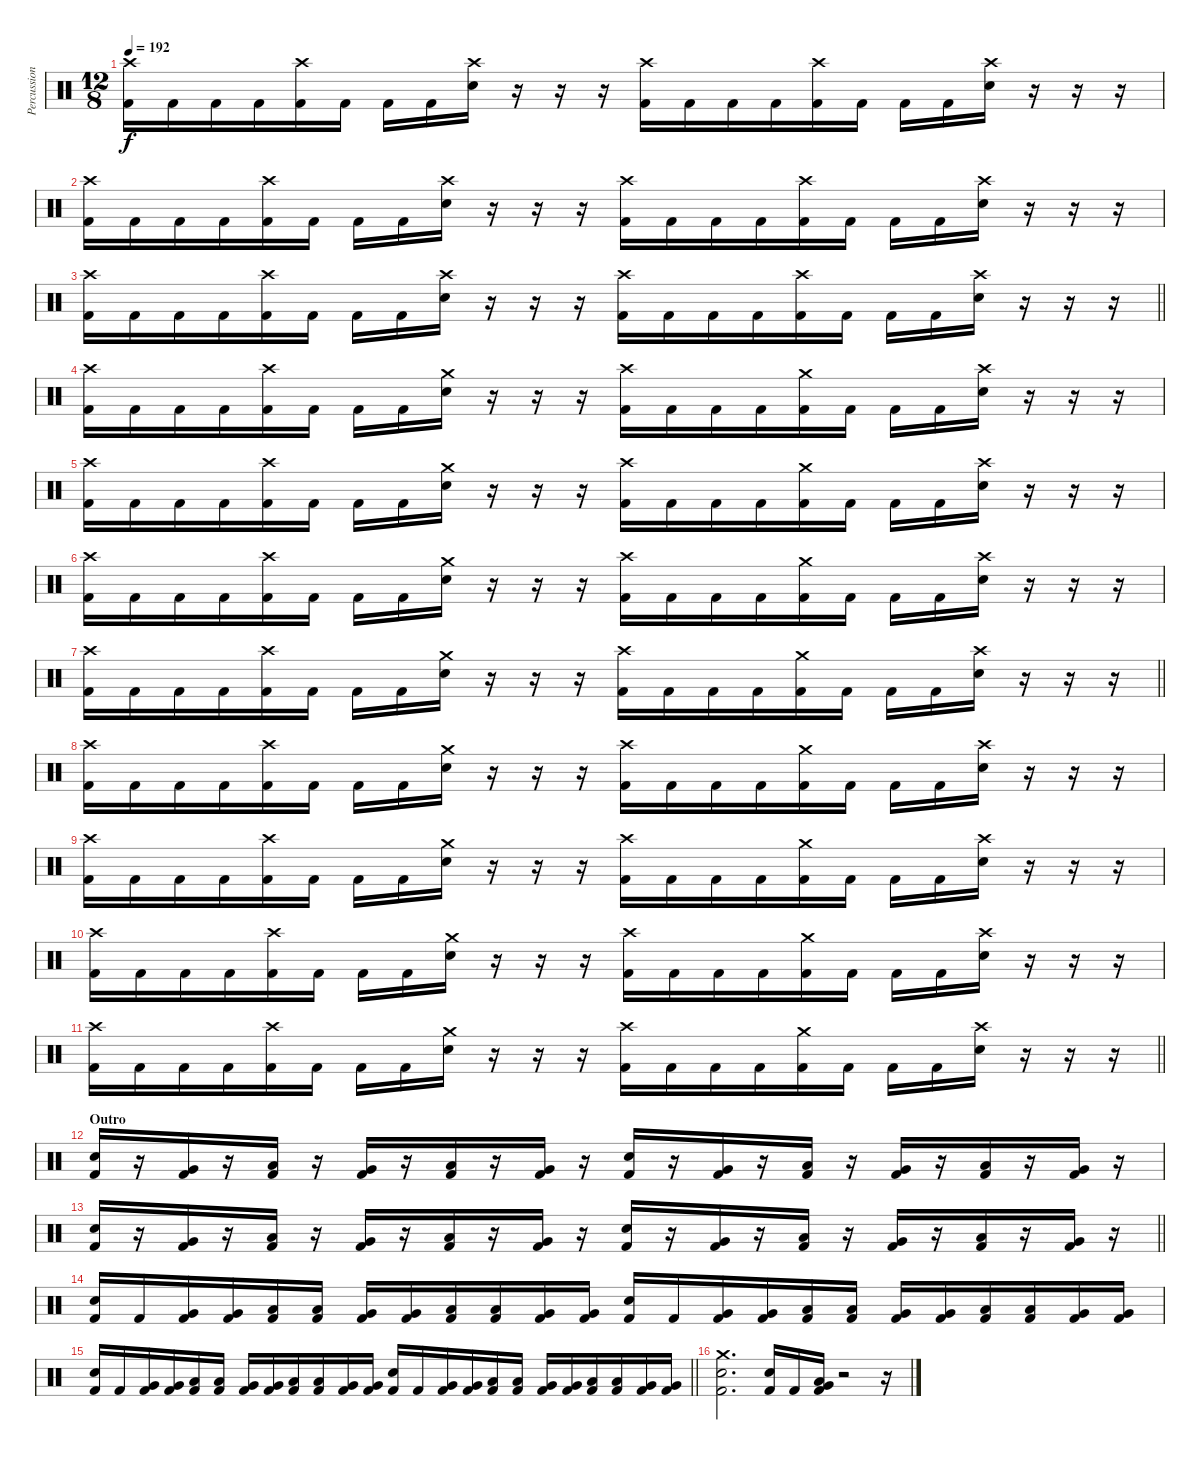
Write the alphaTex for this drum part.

\track ("Percussion" "Percussion") {instrument percussion}
\staff {score}
\articulation defaults
\ts (12 8)
\tempo 192
\clef neutral
\ks c
("Crash high (hit)" "Kick (hit) 2").16{dy f} "Kick (hit) 2".16 "Kick (hit) 2".16 "Kick (hit) 2".16 ("Crash high (hit)" "Kick (hit) 2").16 "Kick (hit) 2".16 "Kick (hit) 2".16 "Kick (hit) 2".16 ("Crash high (hit)" "Electric Snare (hit)").16 r.16 r.16 r.16 ("Crash high (hit)" "Kick (hit) 2").16 "Kick (hit) 2".16 "Kick (hit) 2".16 "Kick (hit) 2".16 ("Crash high (hit)" "Kick (hit) 2").16 "Kick (hit) 2".16 "Kick (hit) 2".16 "Kick (hit) 2".16 ("Crash high (hit)" "Electric Snare (hit)").16 r.16 r.16 r.16 |
("Crash high (hit)" "Kick (hit) 2").16 "Kick (hit) 2".16 "Kick (hit) 2".16 "Kick (hit) 2".16 ("Crash high (hit)" "Kick (hit) 2").16 "Kick (hit) 2".16 "Kick (hit) 2".16 "Kick (hit) 2".16 ("Crash high (hit)" "Electric Snare (hit)").16 r.16 r.16 r.16 ("Crash high (hit)" "Kick (hit) 2").16 "Kick (hit) 2".16 "Kick (hit) 2".16 "Kick (hit) 2".16 ("Crash high (hit)" "Kick (hit) 2").16 "Kick (hit) 2".16 "Kick (hit) 2".16 "Kick (hit) 2".16 ("Crash high (hit)" "Electric Snare (hit)").16 r.16 r.16 r.16 |
\barLineRight lightlight
("Crash high (hit)" "Kick (hit) 2").16 "Kick (hit) 2".16 "Kick (hit) 2".16 "Kick (hit) 2".16 ("Crash high (hit)" "Kick (hit) 2").16 "Kick (hit) 2".16 "Kick (hit) 2".16 "Kick (hit) 2".16 ("Crash high (hit)" "Electric Snare (hit)").16 r.16 r.16 r.16 ("Crash high (hit)" "Kick (hit) 2").16 "Kick (hit) 2".16 "Kick (hit) 2".16 "Kick (hit) 2".16 ("Crash high (hit)" "Kick (hit) 2").16 "Kick (hit) 2".16 "Kick (hit) 2".16 "Kick (hit) 2".16 ("Crash high (hit)" "Electric Snare (hit)").16 r.16 r.16 r.16 |
("Crash high (hit)" "Kick (hit) 2").16 "Kick (hit) 2".16 "Kick (hit) 2".16 "Kick (hit) 2".16 ("Crash high (hit)" "Kick (hit) 2").16 "Kick (hit) 2".16 "Kick (hit) 2".16 "Kick (hit) 2".16 ("Crash medium (hit)" "Electric Snare (hit)").16 r.16 r.16 r.16 ("Crash high (hit)" "Kick (hit) 2").16 "Kick (hit) 2".16 "Kick (hit) 2".16 "Kick (hit) 2".16 ("Crash medium (hit)" "Kick (hit) 2").16 "Kick (hit) 2".16 "Kick (hit) 2".16 "Kick (hit) 2".16 ("Crash high (hit)" "Electric Snare (hit)").16 r.16 r.16 r.16 |
("Crash high (hit)" "Kick (hit) 2").16 "Kick (hit) 2".16 "Kick (hit) 2".16 "Kick (hit) 2".16 ("Crash high (hit)" "Kick (hit) 2").16 "Kick (hit) 2".16 "Kick (hit) 2".16 "Kick (hit) 2".16 ("Crash medium (hit)" "Electric Snare (hit)").16 r.16 r.16 r.16 ("Crash high (hit)" "Kick (hit) 2").16 "Kick (hit) 2".16 "Kick (hit) 2".16 "Kick (hit) 2".16 ("Crash medium (hit)" "Kick (hit) 2").16 "Kick (hit) 2".16 "Kick (hit) 2".16 "Kick (hit) 2".16 ("Crash high (hit)" "Electric Snare (hit)").16 r.16 r.16 r.16 |
("Crash high (hit)" "Kick (hit) 2").16 "Kick (hit) 2".16 "Kick (hit) 2".16 "Kick (hit) 2".16 ("Crash high (hit)" "Kick (hit) 2").16 "Kick (hit) 2".16 "Kick (hit) 2".16 "Kick (hit) 2".16 ("Crash medium (hit)" "Electric Snare (hit)").16 r.16 r.16 r.16 ("Crash high (hit)" "Kick (hit) 2").16 "Kick (hit) 2".16 "Kick (hit) 2".16 "Kick (hit) 2".16 ("Crash medium (hit)" "Kick (hit) 2").16 "Kick (hit) 2".16 "Kick (hit) 2".16 "Kick (hit) 2".16 ("Crash high (hit)" "Electric Snare (hit)").16 r.16 r.16 r.16 |
\barLineRight lightlight
("Crash high (hit)" "Kick (hit) 2").16 "Kick (hit) 2".16 "Kick (hit) 2".16 "Kick (hit) 2".16 ("Crash high (hit)" "Kick (hit) 2").16 "Kick (hit) 2".16 "Kick (hit) 2".16 "Kick (hit) 2".16 ("Crash medium (hit)" "Electric Snare (hit)").16 r.16 r.16 r.16 ("Crash high (hit)" "Kick (hit) 2").16 "Kick (hit) 2".16 "Kick (hit) 2".16 "Kick (hit) 2".16 ("Crash medium (hit)" "Kick (hit) 2").16 "Kick (hit) 2".16 "Kick (hit) 2".16 "Kick (hit) 2".16 ("Crash high (hit)" "Electric Snare (hit)").16 r.16 r.16 r.16 |
("Crash high (hit)" "Kick (hit) 2").16 "Kick (hit) 2".16 "Kick (hit) 2".16 "Kick (hit) 2".16 ("Crash high (hit)" "Kick (hit) 2").16 "Kick (hit) 2".16 "Kick (hit) 2".16 "Kick (hit) 2".16 ("Crash medium (hit)" "Electric Snare (hit)").16 r.16 r.16 r.16 ("Crash high (hit)" "Kick (hit) 2").16 "Kick (hit) 2".16 "Kick (hit) 2".16 "Kick (hit) 2".16 ("Crash medium (hit)" "Kick (hit) 2").16 "Kick (hit) 2".16 "Kick (hit) 2".16 "Kick (hit) 2".16 ("Crash high (hit)" "Electric Snare (hit)").16 r.16 r.16 r.16 |
("Crash high (hit)" "Kick (hit) 2").16 "Kick (hit) 2".16 "Kick (hit) 2".16 "Kick (hit) 2".16 ("Crash high (hit)" "Kick (hit) 2").16 "Kick (hit) 2".16 "Kick (hit) 2".16 "Kick (hit) 2".16 ("Crash medium (hit)" "Electric Snare (hit)").16 r.16 r.16 r.16 ("Crash high (hit)" "Kick (hit) 2").16 "Kick (hit) 2".16 "Kick (hit) 2".16 "Kick (hit) 2".16 ("Crash medium (hit)" "Kick (hit) 2").16 "Kick (hit) 2".16 "Kick (hit) 2".16 "Kick (hit) 2".16 ("Crash high (hit)" "Electric Snare (hit)").16 r.16 r.16 r.16 |
("Crash high (hit)" "Kick (hit) 2").16 "Kick (hit) 2".16 "Kick (hit) 2".16 "Kick (hit) 2".16 ("Crash high (hit)" "Kick (hit) 2").16 "Kick (hit) 2".16 "Kick (hit) 2".16 "Kick (hit) 2".16 ("Crash medium (hit)" "Electric Snare (hit)").16 r.16 r.16 r.16 ("Crash high (hit)" "Kick (hit) 2").16 "Kick (hit) 2".16 "Kick (hit) 2".16 "Kick (hit) 2".16 ("Crash medium (hit)" "Kick (hit) 2").16 "Kick (hit) 2".16 "Kick (hit) 2".16 "Kick (hit) 2".16 ("Crash high (hit)" "Electric Snare (hit)").16 r.16 r.16 r.16 |
\barLineRight lightlight
("Crash high (hit)" "Kick (hit) 2").16 "Kick (hit) 2".16 "Kick (hit) 2".16 "Kick (hit) 2".16 ("Crash high (hit)" "Kick (hit) 2").16 "Kick (hit) 2".16 "Kick (hit) 2".16 "Kick (hit) 2".16 ("Crash medium (hit)" "Electric Snare (hit)").16 r.16 r.16 r.16 ("Crash high (hit)" "Kick (hit) 2").16 "Kick (hit) 2".16 "Kick (hit) 2".16 "Kick (hit) 2".16 ("Crash medium (hit)" "Kick (hit) 2").16 "Kick (hit) 2".16 "Kick (hit) 2".16 "Kick (hit) 2".16 ("Crash high (hit)" "Electric Snare (hit)").16 r.16 r.16 r.16 |
\section ("" "Outro")
("Electric Snare (hit)" "Kick (hit) 2").16 r.16 ("Very Low Tom (hit)" "Kick (hit) 2").16 r.16 ("Low Floor Tom (hit)" "Kick (hit) 2").16 r.16 ("Very Low Tom (hit)" "Kick (hit) 2").16 r.16 ("Low Floor Tom (hit)" "Kick (hit) 2").16 r.16 ("Very Low Tom (hit)" "Kick (hit) 2").16 r.16 ("Electric Snare (hit)" "Kick (hit) 2").16 r.16 ("Very Low Tom (hit)" "Kick (hit) 2").16 r.16 ("Low Floor Tom (hit)" "Kick (hit) 2").16 r.16 ("Very Low Tom (hit)" "Kick (hit) 2").16 r.16 ("Low Floor Tom (hit)" "Kick (hit) 2").16 r.16 ("Very Low Tom (hit)" "Kick (hit) 2").16 r.16 |
\barLineRight lightlight
("Electric Snare (hit)" "Kick (hit) 2").16 r.16 ("Very Low Tom (hit)" "Kick (hit) 2").16 r.16 ("Low Floor Tom (hit)" "Kick (hit) 2").16 r.16 ("Very Low Tom (hit)" "Kick (hit) 2").16 r.16 ("Low Floor Tom (hit)" "Kick (hit) 2").16 r.16 ("Very Low Tom (hit)" "Kick (hit) 2").16 r.16 ("Electric Snare (hit)" "Kick (hit) 2").16 r.16 ("Very Low Tom (hit)" "Kick (hit) 2").16 r.16 ("Low Floor Tom (hit)" "Kick (hit) 2").16 r.16 ("Very Low Tom (hit)" "Kick (hit) 2").16 r.16 ("Low Floor Tom (hit)" "Kick (hit) 2").16 r.16 ("Very Low Tom (hit)" "Kick (hit) 2").16 r.16 |
("Electric Snare (hit)" "Kick (hit) 2").16 "Kick (hit) 2".16 ("Very Low Tom (hit)" "Kick (hit) 2").16 ("Very Low Tom (hit)" "Kick (hit) 2").16 ("Low Floor Tom (hit)" "Kick (hit) 2").16 ("Low Floor Tom (hit)" "Kick (hit) 2").16 ("Very Low Tom (hit)" "Kick (hit) 2").16 ("Very Low Tom (hit)" "Kick (hit) 2").16 ("Low Floor Tom (hit)" "Kick (hit) 2").16 ("Low Floor Tom (hit)" "Kick (hit) 2").16 ("Very Low Tom (hit)" "Kick (hit) 2").16 ("Very Low Tom (hit)" "Kick (hit) 2").16 ("Electric Snare (hit)" "Kick (hit) 2").16 "Kick (hit) 2".16 ("Very Low Tom (hit)" "Kick (hit) 2").16 ("Very Low Tom (hit)" "Kick (hit) 2").16 ("Low Floor Tom (hit)" "Kick (hit) 2").16 ("Low Floor Tom (hit)" "Kick (hit) 2").16 ("Very Low Tom (hit)" "Kick (hit) 2").16 ("Very Low Tom (hit)" "Kick (hit) 2").16 ("Low Floor Tom (hit)" "Kick (hit) 2").16 ("Low Floor Tom (hit)" "Kick (hit) 2").16 ("Very Low Tom (hit)" "Kick (hit) 2").16 ("Very Low Tom (hit)" "Kick (hit) 2").16 |
\barLineRight lightlight
("Electric Snare (hit)" "Kick (hit) 2").16 "Kick (hit) 2".16 ("Very Low Tom (hit)" "Kick (hit) 2").16 ("Very Low Tom (hit)" "Kick (hit) 2").16 ("Low Floor Tom (hit)" "Kick (hit) 2").16 ("Low Floor Tom (hit)" "Kick (hit) 2").16 ("Very Low Tom (hit)" "Kick (hit) 2").16 ("Very Low Tom (hit)" "Kick (hit) 2").16 ("Low Floor Tom (hit)" "Kick (hit) 2").16 ("Low Floor Tom (hit)" "Kick (hit) 2").16 ("Very Low Tom (hit)" "Kick (hit) 2").16 ("Very Low Tom (hit)" "Kick (hit) 2").16 ("Electric Snare (hit)" "Kick (hit) 2").16 "Kick (hit) 2".16 ("Very Low Tom (hit)" "Kick (hit) 2").16 ("Very Low Tom (hit)" "Kick (hit) 2").16 ("Low Floor Tom (hit)" "Kick (hit) 2").16 ("Low Floor Tom (hit)" "Kick (hit) 2").16 ("Very Low Tom (hit)" "Kick (hit) 2").16 ("Very Low Tom (hit)" "Kick (hit) 2").16 ("Low Floor Tom (hit)" "Kick (hit) 2").16 ("Low Floor Tom (hit)" "Kick (hit) 2").16 ("Very Low Tom (hit)" "Kick (hit) 2").16 ("Very Low Tom (hit)" "Kick (hit) 2").16 |
("Crash medium (hit)" "Electric Snare (hit)" "Kick (hit) 2").2{d} ("Electric Snare (hit)" "Kick (hit) 2").16 "Kick (hit) 2".16 ("Very Low Tom (hit)" "Low Floor Tom (hit)" "Kick (hit) 2").16 r.2 r.16
